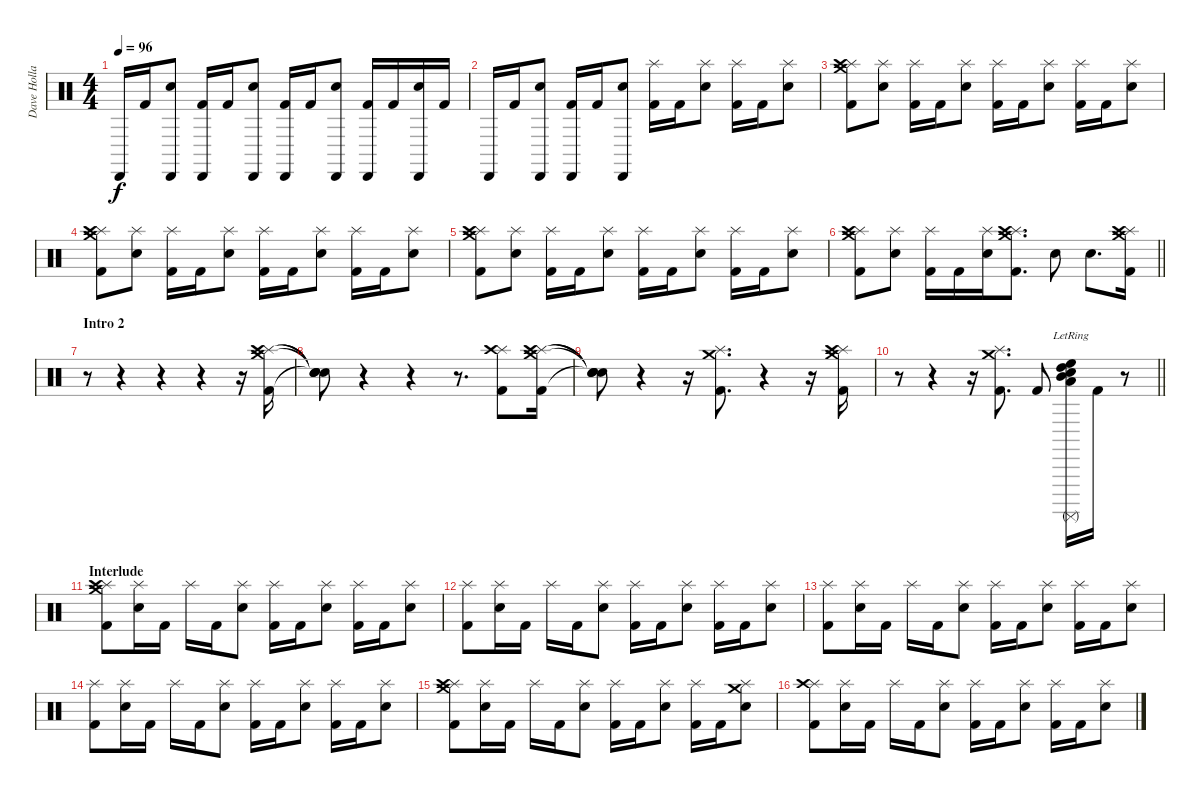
\track ("Dave Holland" "Dave Holla") {instrument percussion}
\staff {score}
\articulation defaults
\ts (4 4)
\tempo 96
\clef neutral
\ks c "Cabasa (hit)".16{dy f} "Kick (hit) 2".16
("Cabasa (hit)" "Snare (hit) 2").8 ("Cabasa (hit)" "Kick (hit) 2").16 "Kick (hit) 2".16 ("Cabasa (hit)" "Snare (hit) 2").8 ("Cabasa (hit)" "Kick (hit) 2").16 "Kick (hit) 2".16 ("Cabasa (hit)" "Snare (hit) 2").8 ("Cabasa (hit)" "Kick (hit) 2").16 "Kick (hit) 2".16 ("Cabasa (hit)" "Snare (hit) 2").16 "Kick (hit) 2".16 |
"Cabasa (hit)".16 "Kick (hit) 2".16 ("Cabasa (hit)" "Snare (hit) 2").8 ("Cabasa (hit)" "Kick (hit) 2").16 "Kick (hit) 2".16 ("Cabasa (hit)" "Snare (hit) 2").8 ("Splash (hit)" "Kick (hit) 2").16 "Kick (hit) 2".16 ("Splash (hit)" "Snare (hit) 2").8 ("Splash (hit)" "Kick (hit) 2").16 "Kick (hit) 2".16 ("Splash (hit)" "Snare (hit) 2").8 |
("Crash medium (hit)" "Splash (hit)" "Crash high (hit)" "Kick (hit) 2").8 ("Splash (hit)" "Snare (hit) 2").8 ("Splash (hit)" "Kick (hit) 2").16 "Kick (hit) 2".16 ("Splash (hit)" "Snare (hit) 2").8 ("Splash (hit)" "Kick (hit) 2").16 "Kick (hit) 2".16 ("Splash (hit)" "Snare (hit) 2").8 ("Splash (hit)" "Kick (hit) 2").16 "Kick (hit) 2".16 ("Splash (hit)" "Snare (hit) 2").8 |
("Crash medium (hit)" "Splash (hit)" "Crash high (hit)" "Kick (hit) 2").8 ("Splash (hit)" "Snare (hit) 2").8 ("Splash (hit)" "Kick (hit) 2").16 "Kick (hit) 2".16 ("Splash (hit)" "Snare (hit) 2").8 ("Splash (hit)" "Kick (hit) 2").16 "Kick (hit) 2".16 ("Splash (hit)" "Snare (hit) 2").8 ("Splash (hit)" "Kick (hit) 2").16 "Kick (hit) 2".16 ("Splash (hit)" "Snare (hit) 2").8 |
("Crash medium (hit)" "Splash (hit)" "Crash high (hit)" "Kick (hit) 2").8 ("Splash (hit)" "Snare (hit) 2").8 ("Splash (hit)" "Kick (hit) 2").16 "Kick (hit) 2".16 ("Splash (hit)" "Snare (hit) 2").8 ("Splash (hit)" "Kick (hit) 2").16 "Kick (hit) 2".16 ("Splash (hit)" "Snare (hit) 2").8 ("Splash (hit)" "Kick (hit) 2").16 "Kick (hit) 2".16 ("Splash (hit)" "Snare (hit) 2").8 |
\barLineRight lightlight
("Crash medium (hit)" "Splash (hit)" "Crash high (hit)" "Kick (hit) 2").8 ("Splash (hit)" "Snare (hit) 2").8 ("Splash (hit)" "Kick (hit) 2").16 "Kick (hit) 2".16 ("Splash (hit)" "Snare (hit) 2").16 ("Crash medium (hit)" "Splash (hit)" "Crash high (hit)" "Kick (hit) 2").8{d} "Snare (hit) 2".8 "Snare (hit) 2".8{d} ("Crash medium (hit)" "Splash (hit)" "Crash high (hit)" "Kick (hit) 2").16 |
\section ("" "Intro 2")
r.8 r.4 r.4 r.4 r.16 ("Crash medium (hit)" "Splash (hit)" "Crash high (hit)" "Kick (hit) 2").16 |
("Snare (hit)"{t} "Snare (hit)"{t} "Snare (hit)"{t} "Snare (hit)"{t}).8 r.4 r.4 r.8{d} ("Splash (hit)" "Crash high (hit)" "Kick (hit) 2").8 ("Crash medium (hit)" "Splash (hit)" "Crash high (hit)" "Kick (hit) 2").16 |
("Snare (hit)"{t} "Snare (hit)"{t} "Snare (hit)"{t} "Snare (hit)"{t}).8 r.4 r.16 ("Crash medium (hit)" "Splash (hit)" "Kick (hit) 2").8{d} r.4 r.16 ("Crash medium (hit)" "Splash (hit)" "Crash high (hit)" "Kick (hit) 2").16 |
\barLineRight lightlight
r.8 r.4 r.16 ("Crash medium (hit)" "Splash (hit)" "Kick (hit) 2").8{d} "Kick (hit) 2".8 ("Low Floor Tom (hit)"{lr} "Surdo (mute)"{lr} "Mid Tom (hit)"{lr} "High Tom (hit)"{lr} "High Floor Tom (hit)"{lr} "Snare (hit) 2"{lr}).16 "Kick (hit) 2".16 r.8 |
\section ("" "Interlude")
("Crash medium (hit)" "Splash (hit)" "Crash high (hit)" "Kick (hit) 2").8 ("Splash (hit)" "Snare (hit) 2").16 "Kick (hit) 2".16 "Splash (hit)".16 "Kick (hit) 2".16 ("Splash (hit)" "Snare (hit) 2").8 ("Splash (hit)" "Kick (hit) 2").16 "Kick (hit) 2".16 ("Splash (hit)" "Snare (hit) 2").8 ("Splash (hit)" "Kick (hit) 2").16 "Kick (hit) 2".16 ("Splash (hit)" "Snare (hit) 2").8 |
("Splash (hit)" "Kick (hit) 2").8 ("Splash (hit)" "Snare (hit) 2").16 "Kick (hit) 2".16 "Splash (hit)".16 "Kick (hit) 2".16 ("Splash (hit)" "Snare (hit) 2").8 ("Splash (hit)" "Kick (hit) 2").16 "Kick (hit) 2".16 ("Splash (hit)" "Snare (hit) 2").8 ("Splash (hit)" "Kick (hit) 2").16 "Kick (hit) 2".16 ("Splash (hit)" "Snare (hit) 2").8 |
("Splash (hit)" "Kick (hit) 2").8 ("Splash (hit)" "Snare (hit) 2").16 "Kick (hit) 2".16 "Splash (hit)".16 "Kick (hit) 2".16 ("Splash (hit)" "Snare (hit) 2").8 ("Splash (hit)" "Kick (hit) 2").16 "Kick (hit) 2".16 ("Splash (hit)" "Snare (hit) 2").8 ("Splash (hit)" "Kick (hit) 2").16 "Kick (hit) 2".16 ("Splash (hit)" "Snare (hit) 2").8 |
("Splash (hit)" "Kick (hit) 2").8 ("Splash (hit)" "Snare (hit) 2").16 "Kick (hit) 2".16 "Splash (hit)".16 "Kick (hit) 2".16 ("Splash (hit)" "Snare (hit) 2").8 ("Splash (hit)" "Kick (hit) 2").16 "Kick (hit) 2".16 ("Splash (hit)" "Snare (hit) 2").8 ("Splash (hit)" "Kick (hit) 2").16 "Kick (hit) 2".16 ("Splash (hit)" "Snare (hit) 2").8 |
("Crash medium (hit)" "Splash (hit)" "Crash high (hit)" "Kick (hit) 2").8 ("Splash (hit)" "Snare (hit) 2").16 "Kick (hit) 2".16 "Splash (hit)".16 "Kick (hit) 2".16 ("Splash (hit)" "Snare (hit) 2").8 ("Splash (hit)" "Kick (hit) 2").16 "Kick (hit) 2".16 ("Splash (hit)" "Snare (hit) 2").8 ("Splash (hit)" "Kick (hit) 2").16 "Kick (hit) 2".16 ("Crash medium (hit)" "Splash (hit)" "Snare (hit) 2").8 |
("Splash (hit)" "Crash high (hit)" "Kick (hit) 2").8 ("Splash (hit)" "Snare (hit) 2").16 "Kick (hit) 2".16 "Splash (hit)".16 "Kick (hit) 2".16 ("Splash (hit)" "Snare (hit) 2").8 ("Splash (hit)" "Kick (hit) 2").16 "Kick (hit) 2".16 ("Splash (hit)" "Snare (hit) 2").8 ("Splash (hit)" "Kick (hit) 2").16 "Kick (hit) 2".16 ("Splash (hit)" "Snare (hit) 2").8
